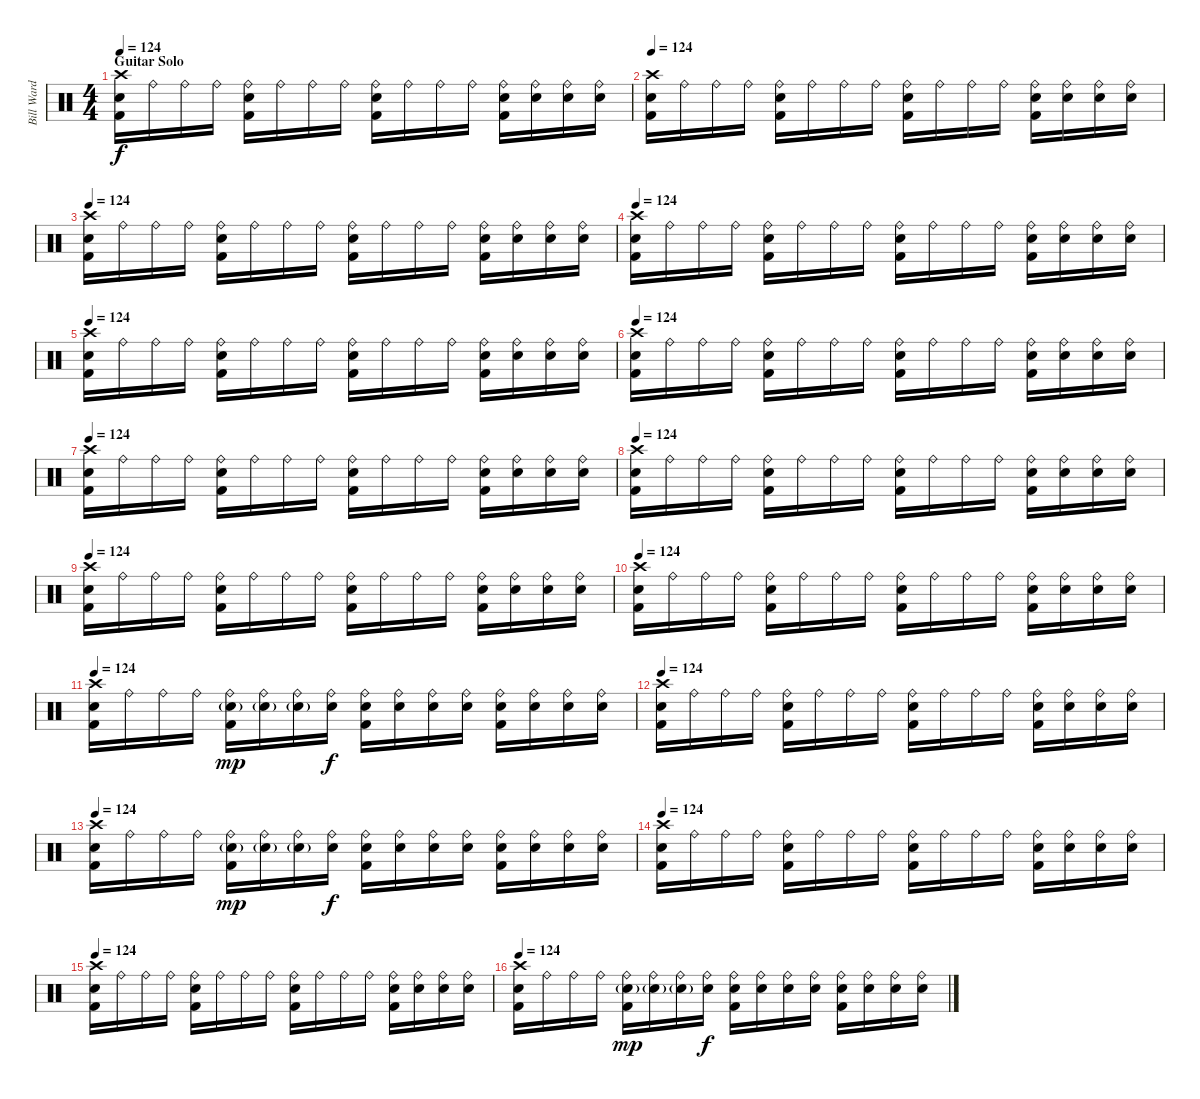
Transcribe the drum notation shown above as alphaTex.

\track ("Bill Ward" "Bill Ward") {instrument percussion}
\staff {score}
\articulation defaults
\ts (4 4)
\section ("" "Guitar Solo")
\tempo 124
\clef neutral
\ks c
("Crash high (hit)" "Snare (hit) 2" "Kick (hit) 2").16{dy f} "Ride (bell)".16 "Ride (bell)".16 "Ride (bell)".16 ("Ride (bell)" "Snare (hit) 2" "Kick (hit) 2").16 "Ride (bell)".16 "Ride (bell)".16 "Ride (bell)".16 ("Ride (bell)" "Snare (hit) 2" "Kick (hit) 2").16 "Ride (bell)".16 "Ride (bell)".16 "Ride (bell)".16 ("Ride (bell)" "Snare (hit) 2" "Kick (hit) 2").16 ("Ride (bell)" "Snare (hit) 2").16 ("Ride (bell)" "Snare (hit) 2").16 ("Ride (bell)" "Snare (hit) 2").16 |
\tempo 124
("Crash high (hit)" "Snare (hit) 2" "Kick (hit) 2").16 "Ride (bell)".16 "Ride (bell)".16 "Ride (bell)".16 ("Ride (bell)" "Snare (hit) 2" "Kick (hit) 2").16 "Ride (bell)".16 "Ride (bell)".16 "Ride (bell)".16 ("Ride (bell)" "Snare (hit) 2" "Kick (hit) 2").16 "Ride (bell)".16 "Ride (bell)".16 "Ride (bell)".16 ("Ride (bell)" "Snare (hit) 2" "Kick (hit) 2").16 ("Ride (bell)" "Snare (hit) 2").16 ("Ride (bell)" "Snare (hit) 2").16 ("Ride (bell)" "Snare (hit) 2").16 |
\tempo 124
("Crash high (hit)" "Snare (hit) 2" "Kick (hit) 2").16 "Ride (bell)".16 "Ride (bell)".16 "Ride (bell)".16 ("Ride (bell)" "Snare (hit) 2" "Kick (hit) 2").16 "Ride (bell)".16 "Ride (bell)".16 "Ride (bell)".16 ("Ride (bell)" "Snare (hit) 2" "Kick (hit) 2").16 "Ride (bell)".16 "Ride (bell)".16 "Ride (bell)".16 ("Ride (bell)" "Snare (hit) 2" "Kick (hit) 2").16 ("Ride (bell)" "Snare (hit) 2").16 ("Ride (bell)" "Snare (hit) 2").16 ("Ride (bell)" "Snare (hit) 2").16 |
\tempo 124
("Crash high (hit)" "Snare (hit) 2" "Kick (hit) 2").16 "Ride (bell)".16 "Ride (bell)".16 "Ride (bell)".16 ("Ride (bell)" "Snare (hit) 2" "Kick (hit) 2").16 "Ride (bell)".16 "Ride (bell)".16 "Ride (bell)".16 ("Ride (bell)" "Snare (hit) 2" "Kick (hit) 2").16 "Ride (bell)".16 "Ride (bell)".16 "Ride (bell)".16 ("Ride (bell)" "Snare (hit) 2" "Kick (hit) 2").16 ("Ride (bell)" "Snare (hit) 2").16 ("Ride (bell)" "Snare (hit) 2").16 ("Ride (bell)" "Snare (hit) 2").16 |
\tempo 124
("Crash high (hit)" "Snare (hit) 2" "Kick (hit) 2").16 "Ride (bell)".16 "Ride (bell)".16 "Ride (bell)".16 ("Ride (bell)" "Snare (hit) 2" "Kick (hit) 2").16 "Ride (bell)".16 "Ride (bell)".16 "Ride (bell)".16 ("Ride (bell)" "Snare (hit) 2" "Kick (hit) 2").16 "Ride (bell)".16 "Ride (bell)".16 "Ride (bell)".16 ("Ride (bell)" "Snare (hit) 2" "Kick (hit) 2").16 ("Ride (bell)" "Snare (hit) 2").16 ("Ride (bell)" "Snare (hit) 2").16 ("Ride (bell)" "Snare (hit) 2").16 |
\tempo 124
("Crash high (hit)" "Snare (hit) 2" "Kick (hit) 2").16 "Ride (bell)".16 "Ride (bell)".16 "Ride (bell)".16 ("Ride (bell)" "Snare (hit) 2" "Kick (hit) 2").16 "Ride (bell)".16 "Ride (bell)".16 "Ride (bell)".16 ("Ride (bell)" "Snare (hit) 2" "Kick (hit) 2").16 "Ride (bell)".16 "Ride (bell)".16 "Ride (bell)".16 ("Ride (bell)" "Snare (hit) 2" "Kick (hit) 2").16 ("Ride (bell)" "Snare (hit) 2").16 ("Ride (bell)" "Snare (hit) 2").16 ("Ride (bell)" "Snare (hit) 2").16 |
\tempo 124
("Crash high (hit)" "Snare (hit) 2" "Kick (hit) 2").16 "Ride (bell)".16 "Ride (bell)".16 "Ride (bell)".16 ("Ride (bell)" "Snare (hit) 2" "Kick (hit) 2").16 "Ride (bell)".16 "Ride (bell)".16 "Ride (bell)".16 ("Ride (bell)" "Snare (hit) 2" "Kick (hit) 2").16 "Ride (bell)".16 "Ride (bell)".16 "Ride (bell)".16 ("Ride (bell)" "Snare (hit) 2" "Kick (hit) 2").16 ("Ride (bell)" "Snare (hit) 2").16 ("Ride (bell)" "Snare (hit) 2").16 ("Ride (bell)" "Snare (hit) 2").16 |
\tempo 124
("Crash high (hit)" "Snare (hit) 2" "Kick (hit) 2").16 "Ride (bell)".16 "Ride (bell)".16 "Ride (bell)".16 ("Ride (bell)" "Snare (hit) 2" "Kick (hit) 2").16 "Ride (bell)".16 "Ride (bell)".16 "Ride (bell)".16 ("Ride (bell)" "Snare (hit) 2" "Kick (hit) 2").16 "Ride (bell)".16 "Ride (bell)".16 "Ride (bell)".16 ("Ride (bell)" "Snare (hit) 2" "Kick (hit) 2").16 ("Ride (bell)" "Snare (hit) 2").16 ("Ride (bell)" "Snare (hit) 2").16 ("Ride (bell)" "Snare (hit) 2").16 |
\tempo 124
("Crash high (hit)" "Snare (hit) 2" "Kick (hit) 2").16 "Ride (bell)".16 "Ride (bell)".16 "Ride (bell)".16 ("Ride (bell)" "Snare (hit) 2" "Kick (hit) 2").16 "Ride (bell)".16 "Ride (bell)".16 "Ride (bell)".16 ("Ride (bell)" "Snare (hit) 2" "Kick (hit) 2").16 "Ride (bell)".16 "Ride (bell)".16 "Ride (bell)".16 ("Ride (bell)" "Snare (hit) 2" "Kick (hit) 2").16 ("Ride (bell)" "Snare (hit) 2").16 ("Ride (bell)" "Snare (hit) 2").16 ("Ride (bell)" "Snare (hit) 2").16 |
\tempo 124
("Crash high (hit)" "Snare (hit) 2" "Kick (hit) 2").16 "Ride (bell)".16 "Ride (bell)".16 "Ride (bell)".16 ("Ride (bell)" "Snare (hit) 2" "Kick (hit) 2").16 "Ride (bell)".16 "Ride (bell)".16 "Ride (bell)".16 ("Ride (bell)" "Snare (hit) 2" "Kick (hit) 2").16 "Ride (bell)".16 "Ride (bell)".16 "Ride (bell)".16 ("Ride (bell)" "Snare (hit) 2" "Kick (hit) 2").16 ("Ride (bell)" "Snare (hit) 2").16 ("Ride (bell)" "Snare (hit) 2").16 ("Ride (bell)" "Snare (hit) 2").16 |
\tempo 124
("Crash high (hit)" "Snare (hit) 2" "Kick (hit) 2").16 "Ride (bell)".16 "Ride (bell)".16 "Ride (bell)".16 ("Ride (bell)" "Snare (hit) 2"{g} "Kick (hit) 2").16{dy mp} ("Ride (bell)" "Snare (hit) 2"{g}).16 ("Ride (bell)" "Snare (hit) 2"{g}).16 ("Ride (bell)" "Snare (hit) 2").16{dy f} ("Ride (bell)" "Snare (hit) 2" "Kick (hit) 2").16 ("Ride (bell)" "Snare (hit) 2").16 ("Ride (bell)" "Snare (hit) 2").16 ("Ride (bell)" "Snare (hit) 2").16 ("Ride (bell)" "Snare (hit) 2" "Kick (hit) 2").16 ("Ride (bell)" "Snare (hit) 2").16 ("Ride (bell)" "Snare (hit) 2").16 ("Ride (bell)" "Snare (hit) 2").16 |
\tempo 124
("Crash high (hit)" "Snare (hit) 2" "Kick (hit) 2").16 "Ride (bell)".16 "Ride (bell)".16 "Ride (bell)".16 ("Ride (bell)" "Snare (hit) 2" "Kick (hit) 2").16 "Ride (bell)".16 "Ride (bell)".16 "Ride (bell)".16 ("Ride (bell)" "Snare (hit) 2" "Kick (hit) 2").16 "Ride (bell)".16 "Ride (bell)".16 "Ride (bell)".16 ("Ride (bell)" "Snare (hit) 2" "Kick (hit) 2").16 ("Ride (bell)" "Snare (hit) 2").16 ("Ride (bell)" "Snare (hit) 2").16 ("Ride (bell)" "Snare (hit) 2").16 |
\tempo 124
("Crash high (hit)" "Snare (hit) 2" "Kick (hit) 2").16 "Ride (bell)".16 "Ride (bell)".16 "Ride (bell)".16 ("Ride (bell)" "Snare (hit) 2"{g} "Kick (hit) 2").16{dy mp} ("Ride (bell)" "Snare (hit) 2"{g}).16 ("Ride (bell)" "Snare (hit) 2"{g}).16 ("Ride (bell)" "Snare (hit) 2").16{dy f} ("Ride (bell)" "Snare (hit) 2" "Kick (hit) 2").16 ("Ride (bell)" "Snare (hit) 2").16 ("Ride (bell)" "Snare (hit) 2").16 ("Ride (bell)" "Snare (hit) 2").16 ("Ride (bell)" "Snare (hit) 2" "Kick (hit) 2").16 ("Ride (bell)" "Snare (hit) 2").16 ("Ride (bell)" "Snare (hit) 2").16 ("Ride (bell)" "Snare (hit) 2").16 |
\tempo 124
("Crash high (hit)" "Snare (hit) 2" "Kick (hit) 2").16 "Ride (bell)".16 "Ride (bell)".16 "Ride (bell)".16 ("Ride (bell)" "Snare (hit) 2" "Kick (hit) 2").16 "Ride (bell)".16 "Ride (bell)".16 "Ride (bell)".16 ("Ride (bell)" "Snare (hit) 2" "Kick (hit) 2").16 "Ride (bell)".16 "Ride (bell)".16 "Ride (bell)".16 ("Ride (bell)" "Snare (hit) 2" "Kick (hit) 2").16 ("Ride (bell)" "Snare (hit) 2").16 ("Ride (bell)" "Snare (hit) 2").16 ("Ride (bell)" "Snare (hit) 2").16 |
\tempo 124
("Crash high (hit)" "Snare (hit) 2" "Kick (hit) 2").16 "Ride (bell)".16 "Ride (bell)".16 "Ride (bell)".16 ("Ride (bell)" "Snare (hit) 2" "Kick (hit) 2").16 "Ride (bell)".16 "Ride (bell)".16 "Ride (bell)".16 ("Ride (bell)" "Snare (hit) 2" "Kick (hit) 2").16 "Ride (bell)".16 "Ride (bell)".16 "Ride (bell)".16 ("Ride (bell)" "Snare (hit) 2" "Kick (hit) 2").16 ("Ride (bell)" "Snare (hit) 2").16 ("Ride (bell)" "Snare (hit) 2").16 ("Ride (bell)" "Snare (hit) 2").16 |
\tempo 124
("Crash high (hit)" "Snare (hit) 2" "Kick (hit) 2").16 "Ride (bell)".16 "Ride (bell)".16 "Ride (bell)".16 ("Ride (bell)" "Snare (hit) 2"{g} "Kick (hit) 2").16{dy mp} ("Ride (bell)" "Snare (hit) 2"{g}).16 ("Ride (bell)" "Snare (hit) 2"{g}).16 ("Ride (bell)" "Snare (hit) 2").16{dy f} ("Ride (bell)" "Snare (hit) 2" "Kick (hit) 2").16 ("Ride (bell)" "Snare (hit) 2").16 ("Ride (bell)" "Snare (hit) 2").16 ("Ride (bell)" "Snare (hit) 2").16 ("Ride (bell)" "Snare (hit) 2" "Kick (hit) 2").16 ("Ride (bell)" "Snare (hit) 2").16 ("Ride (bell)" "Snare (hit) 2").16 ("Ride (bell)" "Snare (hit) 2").16
